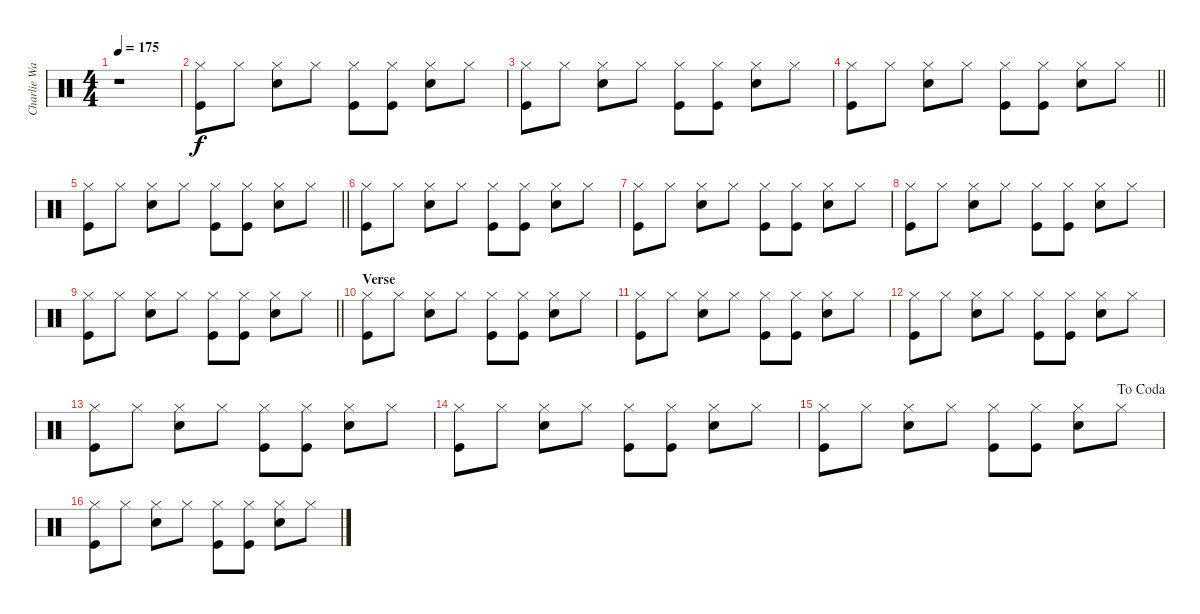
\track ("Charlie Watts" "Charlie Wa") {instrument percussion}
\staff {score}
\articulation defaults
\ts (4 4)
\tempo 175
\clef neutral
\ks c
r.1{dy f} |
("Hi-Hat (closed)" "Kick (hit)").8 "Hi-Hat (closed)".8 ("Hi-Hat (closed)" "Snare (hit) 2").8 "Hi-Hat (closed)".8 ("Hi-Hat (closed)" "Kick (hit)").8 ("Hi-Hat (closed)" "Kick (hit)").8 ("Hi-Hat (closed)" "Snare (hit) 2").8 "Hi-Hat (closed)".8 |
("Hi-Hat (closed)" "Kick (hit)").8 "Hi-Hat (closed)".8 ("Hi-Hat (closed)" "Snare (hit) 2").8 "Hi-Hat (closed)".8 ("Hi-Hat (closed)" "Kick (hit)").8 ("Hi-Hat (closed)" "Kick (hit)").8 ("Hi-Hat (closed)" "Snare (hit) 2").8 "Hi-Hat (closed)".8 |
\barLineRight lightlight
("Hi-Hat (closed)" "Kick (hit)").8 "Hi-Hat (closed)".8 ("Hi-Hat (closed)" "Snare (hit) 2").8 "Hi-Hat (closed)".8 ("Hi-Hat (closed)" "Kick (hit)").8 ("Hi-Hat (closed)" "Kick (hit)").8 ("Hi-Hat (closed)" "Snare (hit) 2").8 "Hi-Hat (closed)".8 |
\barLineRight lightlight
("Hi-Hat (closed)" "Kick (hit)").8 "Hi-Hat (closed)".8 ("Hi-Hat (closed)" "Snare (hit) 2").8 "Hi-Hat (closed)".8 ("Hi-Hat (closed)" "Kick (hit)").8 ("Hi-Hat (closed)" "Kick (hit)").8 ("Hi-Hat (closed)" "Snare (hit) 2").8 "Hi-Hat (closed)".8 |
("Hi-Hat (closed)" "Kick (hit)").8 "Hi-Hat (closed)".8 ("Hi-Hat (closed)" "Snare (hit) 2").8 "Hi-Hat (closed)".8 ("Hi-Hat (closed)" "Kick (hit)").8 ("Hi-Hat (closed)" "Kick (hit)").8 ("Hi-Hat (closed)" "Snare (hit) 2").8 "Hi-Hat (closed)".8 |
("Hi-Hat (closed)" "Kick (hit)").8 "Hi-Hat (closed)".8 ("Hi-Hat (closed)" "Snare (hit) 2").8 "Hi-Hat (closed)".8 ("Hi-Hat (closed)" "Kick (hit)").8 ("Hi-Hat (closed)" "Kick (hit)").8 ("Hi-Hat (closed)" "Snare (hit) 2").8 "Hi-Hat (closed)".8 |
("Hi-Hat (closed)" "Kick (hit)").8 "Hi-Hat (closed)".8 ("Hi-Hat (closed)" "Snare (hit) 2").8 "Hi-Hat (closed)".8 ("Hi-Hat (closed)" "Kick (hit)").8 ("Hi-Hat (closed)" "Kick (hit)").8 ("Hi-Hat (closed)" "Snare (hit) 2").8 "Hi-Hat (closed)".8 |
\barLineRight lightlight
("Hi-Hat (closed)" "Kick (hit)").8 "Hi-Hat (closed)".8 ("Hi-Hat (closed)" "Snare (hit) 2").8 "Hi-Hat (closed)".8 ("Hi-Hat (closed)" "Kick (hit)").8 ("Hi-Hat (closed)" "Kick (hit)").8 ("Hi-Hat (closed)" "Snare (hit) 2").8 "Hi-Hat (closed)".8 |
\section ("" "Verse")
("Hi-Hat (closed)" "Kick (hit)").8 "Hi-Hat (closed)".8 ("Hi-Hat (closed)" "Snare (hit) 2").8 "Hi-Hat (closed)".8 ("Hi-Hat (closed)" "Kick (hit)").8 ("Hi-Hat (closed)" "Kick (hit)").8 ("Hi-Hat (closed)" "Snare (hit) 2").8 "Hi-Hat (closed)".8 |
("Hi-Hat (closed)" "Kick (hit)").8 "Hi-Hat (closed)".8 ("Hi-Hat (closed)" "Snare (hit) 2").8 "Hi-Hat (closed)".8 ("Hi-Hat (closed)" "Kick (hit)").8 ("Hi-Hat (closed)" "Kick (hit)").8 ("Hi-Hat (closed)" "Snare (hit) 2").8 "Hi-Hat (closed)".8 |
("Hi-Hat (closed)" "Kick (hit)").8 "Hi-Hat (closed)".8 ("Hi-Hat (closed)" "Snare (hit) 2").8 "Hi-Hat (closed)".8 ("Hi-Hat (closed)" "Kick (hit)").8 ("Hi-Hat (closed)" "Kick (hit)").8 ("Hi-Hat (closed)" "Snare (hit) 2").8 "Hi-Hat (closed)".8 |
("Hi-Hat (closed)" "Kick (hit)").8 "Hi-Hat (closed)".8 ("Hi-Hat (closed)" "Snare (hit) 2").8 "Hi-Hat (closed)".8 ("Hi-Hat (closed)" "Kick (hit)").8 ("Hi-Hat (closed)" "Kick (hit)").8 ("Hi-Hat (closed)" "Snare (hit) 2").8 "Hi-Hat (closed)".8 |
("Hi-Hat (closed)" "Kick (hit)").8 "Hi-Hat (closed)".8 ("Hi-Hat (closed)" "Snare (hit) 2").8 "Hi-Hat (closed)".8 ("Hi-Hat (closed)" "Kick (hit)").8 ("Hi-Hat (closed)" "Kick (hit)").8 ("Hi-Hat (closed)" "Snare (hit) 2").8 "Hi-Hat (closed)".8 |
\jump dacoda
("Hi-Hat (closed)" "Kick (hit)").8 "Hi-Hat (closed)".8 ("Hi-Hat (closed)" "Snare (hit) 2").8 "Hi-Hat (closed)".8 ("Hi-Hat (closed)" "Kick (hit)").8 ("Hi-Hat (closed)" "Kick (hit)").8 ("Hi-Hat (closed)" "Snare (hit) 2").8 "Hi-Hat (closed)".8 |
("Hi-Hat (closed)" "Kick (hit)").8 "Hi-Hat (closed)".8 ("Hi-Hat (closed)" "Snare (hit) 2").8 "Hi-Hat (closed)".8 ("Hi-Hat (closed)" "Kick (hit)").8 ("Hi-Hat (closed)" "Kick (hit)").8 ("Hi-Hat (closed)" "Snare (hit) 2").8 "Hi-Hat (closed)".8
